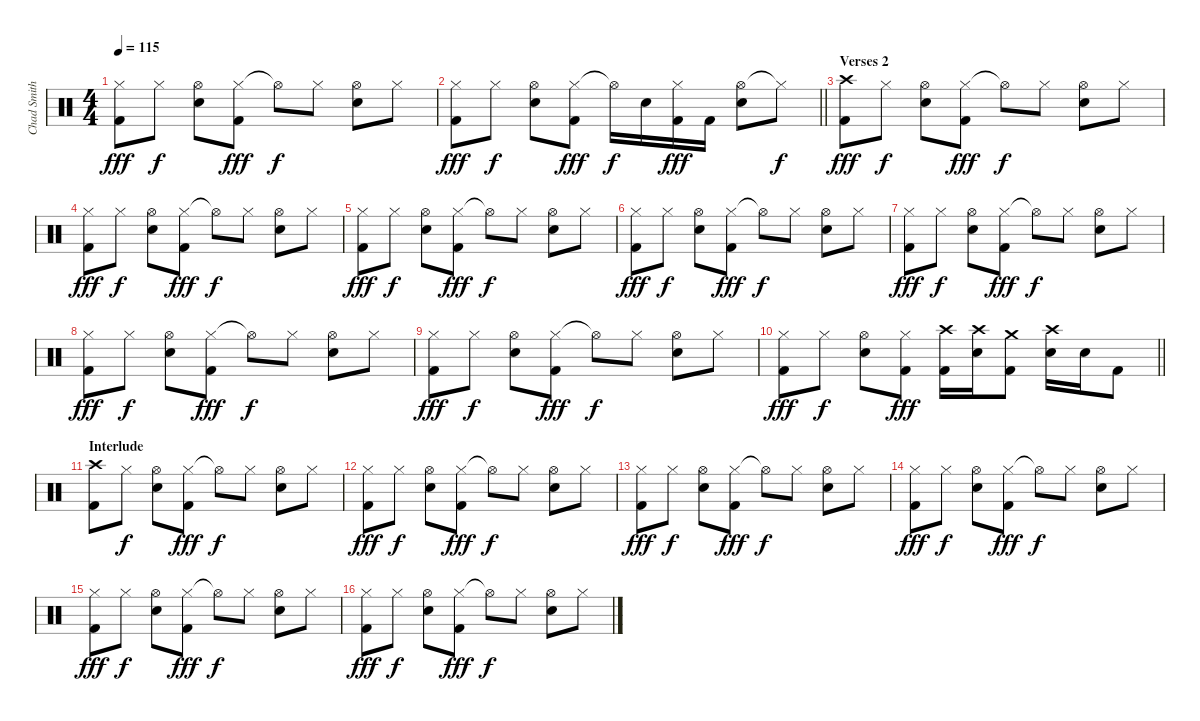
\track ("Chad Smith - Drums" "Chad Smith") {instrument percussion}
\staff {score}
\articulation defaults
\ts (4 4)
\tempo 115
\clef neutral
\ks c
("Hi-Hat (closed)" "Kick (hit) 2").8{dy fff} "Hi-Hat (closed)".8{dy f} ("Hi-Hat (open)" "Electric Snare (hit)").8 ("Hi-Hat (closed)" "Kick (hit) 2").8{dy fff} "Hi-Hat (open)"{t}.8{dy f} "Hi-Hat (closed)".8 ("Hi-Hat (open)" "Electric Snare (hit)").8 "Hi-Hat (closed)".8 |
\barLineRight lightlight
("Hi-Hat (closed)" "Kick (hit) 2").8{dy fff} "Hi-Hat (closed)".8{dy f} ("Hi-Hat (open)" "Electric Snare (hit)").8 ("Hi-Hat (closed)" "Kick (hit) 2").8{dy fff} "Hi-Hat (open)"{t}.16{dy f} "Electric Snare (hit)".16 ("Hi-Hat (closed)" "Kick (hit) 2").16{dy fff} "Kick (hit) 2".16 ("Hi-Hat (open)" "Electric Snare (hit)").8 "Hi-Hat (closed)"{t}.8{dy f} |
\section ("" "Verses 2")
("Crash high (hit)" "Kick (hit) 2").8{dy fff} "Hi-Hat (closed)".8{dy f} ("Hi-Hat (open)" "Electric Snare (hit)").8 ("Hi-Hat (closed)" "Kick (hit) 2").8{dy fff} "Hi-Hat (open)"{t}.8{dy f} "Hi-Hat (closed)".8 ("Hi-Hat (open)" "Electric Snare (hit)").8 "Hi-Hat (closed)".8 |
("Hi-Hat (closed)" "Kick (hit) 2").8{dy fff} "Hi-Hat (closed)".8{dy f} ("Hi-Hat (open)" "Electric Snare (hit)").8 ("Hi-Hat (closed)" "Kick (hit) 2").8{dy fff} "Hi-Hat (open)"{t}.8{dy f} "Hi-Hat (closed)".8 ("Hi-Hat (open)" "Electric Snare (hit)").8 "Hi-Hat (closed)".8 |
("Hi-Hat (closed)" "Kick (hit) 2").8{dy fff} "Hi-Hat (closed)".8{dy f} ("Hi-Hat (open)" "Electric Snare (hit)").8 ("Hi-Hat (closed)" "Kick (hit) 2").8{dy fff} "Hi-Hat (open)"{t}.8{dy f} "Hi-Hat (closed)".8 ("Hi-Hat (open)" "Electric Snare (hit)").8 "Hi-Hat (closed)".8 |
("Hi-Hat (closed)" "Kick (hit) 2").8{dy fff} "Hi-Hat (closed)".8{dy f} ("Hi-Hat (open)" "Electric Snare (hit)").8 ("Hi-Hat (closed)" "Kick (hit) 2").8{dy fff} "Hi-Hat (open)"{t}.8{dy f} "Hi-Hat (closed)".8 ("Hi-Hat (open)" "Electric Snare (hit)").8 "Hi-Hat (closed)".8 |
("Hi-Hat (closed)" "Kick (hit) 2").8{dy fff} "Hi-Hat (closed)".8{dy f} ("Hi-Hat (open)" "Electric Snare (hit)").8 ("Hi-Hat (closed)" "Kick (hit) 2").8{dy fff} "Hi-Hat (open)"{t}.8{dy f} "Hi-Hat (closed)".8 ("Hi-Hat (open)" "Electric Snare (hit)").8 "Hi-Hat (closed)".8 |
("Hi-Hat (closed)" "Kick (hit) 2").8{dy fff} "Hi-Hat (closed)".8{dy f} ("Hi-Hat (open)" "Electric Snare (hit)").8 ("Hi-Hat (closed)" "Kick (hit) 2").8{dy fff} "Hi-Hat (open)"{t}.8{dy f} "Hi-Hat (closed)".8 ("Hi-Hat (open)" "Electric Snare (hit)").8 "Hi-Hat (closed)".8 |
("Hi-Hat (closed)" "Kick (hit) 2").8{dy fff} "Hi-Hat (closed)".8{dy f} ("Hi-Hat (open)" "Electric Snare (hit)").8 ("Hi-Hat (closed)" "Kick (hit) 2").8{dy fff} "Hi-Hat (open)"{t}.8{dy f} "Hi-Hat (closed)".8 ("Hi-Hat (open)" "Electric Snare (hit)").8 "Hi-Hat (closed)".8 |
\barLineRight lightlight
("Hi-Hat (closed)" "Kick (hit) 2").8{dy fff} "Hi-Hat (closed)".8{dy f} ("Hi-Hat (open)" "Electric Snare (hit)").8 ("Hi-Hat (closed)" "Kick (hit) 2").8{dy fff} ("Crash high (hit)" "Kick (hit) 2").16 ("Crash high (hit)" "Electric Snare (hit)").16 ("Crash medium (hit)" "Kick (hit) 2").8 ("Crash high (hit)" "Electric Snare (hit)").16 "Electric Snare (hit)".16 "Kick (hit) 2".8 |
\section ("" "Interlude")
("Crash high (hit)" "Kick (hit) 2").8 "Hi-Hat (closed)".8{dy f} ("Hi-Hat (open)" "Electric Snare (hit)").8 ("Hi-Hat (closed)" "Kick (hit) 2").8{dy fff} "Hi-Hat (open)"{t}.8{dy f} "Hi-Hat (closed)".8 ("Hi-Hat (open)" "Electric Snare (hit)").8 "Hi-Hat (closed)".8 |
("Hi-Hat (closed)" "Kick (hit) 2").8{dy fff} "Hi-Hat (closed)".8{dy f} ("Hi-Hat (open)" "Electric Snare (hit)").8 ("Hi-Hat (closed)" "Kick (hit) 2").8{dy fff} "Hi-Hat (open)"{t}.8{dy f} "Hi-Hat (closed)".8 ("Hi-Hat (open)" "Electric Snare (hit)").8 "Hi-Hat (closed)".8 |
("Hi-Hat (closed)" "Kick (hit) 2").8{dy fff} "Hi-Hat (closed)".8{dy f} ("Hi-Hat (open)" "Electric Snare (hit)").8 ("Hi-Hat (closed)" "Kick (hit) 2").8{dy fff} "Hi-Hat (open)"{t}.8{dy f} "Hi-Hat (closed)".8 ("Hi-Hat (open)" "Electric Snare (hit)").8 "Hi-Hat (closed)".8 |
("Hi-Hat (closed)" "Kick (hit) 2").8{dy fff} "Hi-Hat (closed)".8{dy f} ("Hi-Hat (open)" "Electric Snare (hit)").8 ("Hi-Hat (closed)" "Kick (hit) 2").8{dy fff} "Hi-Hat (open)"{t}.8{dy f} "Hi-Hat (closed)".8 ("Hi-Hat (open)" "Electric Snare (hit)").8 "Hi-Hat (closed)".8 |
("Hi-Hat (closed)" "Kick (hit) 2").8{dy fff} "Hi-Hat (closed)".8{dy f} ("Hi-Hat (open)" "Electric Snare (hit)").8 ("Hi-Hat (closed)" "Kick (hit) 2").8{dy fff} "Hi-Hat (open)"{t}.8{dy f} "Hi-Hat (closed)".8 ("Hi-Hat (open)" "Electric Snare (hit)").8 "Hi-Hat (closed)".8 |
("Hi-Hat (closed)" "Kick (hit) 2").8{dy fff} "Hi-Hat (closed)".8{dy f} ("Hi-Hat (open)" "Electric Snare (hit)").8 ("Hi-Hat (closed)" "Kick (hit) 2").8{dy fff} "Hi-Hat (open)"{t}.8{dy f} "Hi-Hat (closed)".8 ("Hi-Hat (open)" "Electric Snare (hit)").8 "Hi-Hat (closed)".8
